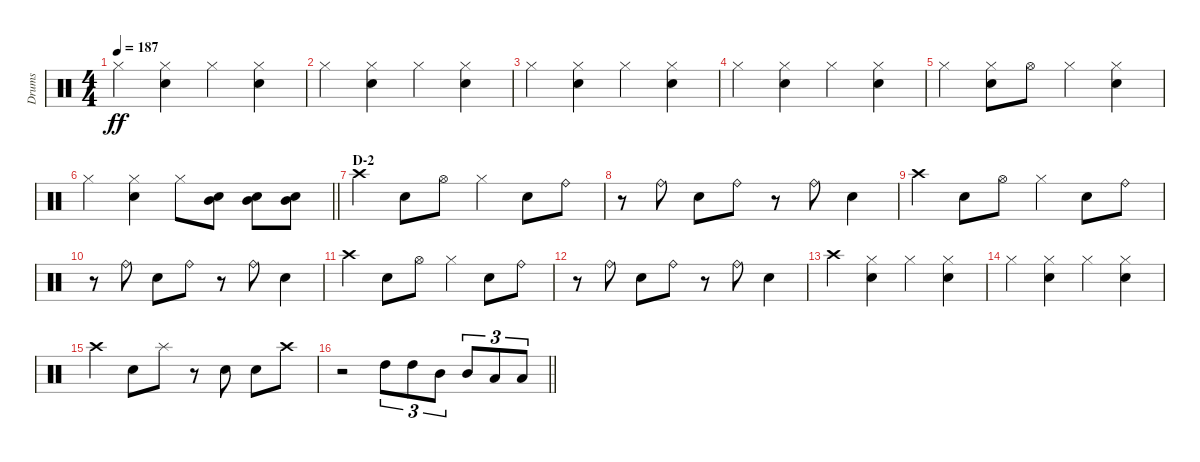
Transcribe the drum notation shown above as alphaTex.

\track ("Drums" "Drums") {instrument percussion}
\staff {score}
\articulation defaults
\ts (4 4)
\tempo 187
\clef neutral
\ks c "Hi-Hat (closed)".4{dy ff}
("Hi-Hat (closed)" "Snare (hit) 2").4 "Hi-Hat (closed)".4 ("Hi-Hat (closed)" "Snare (hit) 2").4 |
"Hi-Hat (closed)".4 ("Hi-Hat (closed)" "Snare (hit) 2").4 "Hi-Hat (closed)".4 ("Hi-Hat (closed)" "Snare (hit) 2").4 |
"Hi-Hat (closed)".4 ("Hi-Hat (closed)" "Snare (hit) 2").4 "Hi-Hat (closed)".4 ("Hi-Hat (closed)" "Snare (hit) 2").4 |
"Hi-Hat (closed)".4 ("Hi-Hat (closed)" "Snare (hit) 2").4 "Hi-Hat (closed)".4 ("Hi-Hat (closed)" "Snare (hit) 2").4 |
"Hi-Hat (closed)".4 ("Snare (hit) 2" "Hi-Hat (closed)").8 "Hi-Hat (open)".8 "Hi-Hat (closed)".4 ("Hi-Hat (closed)" "Snare (hit) 2").4 |
\barLineRight lightlight "Hi-Hat (closed)".4
("Hi-Hat (closed)" "Snare (hit) 2").4 "Hi-Hat (closed)".8 ("Mid Tom (hit)" "Snare (hit) 2").8 ("Snare (hit) 2" "Mid Tom (hit)").8 ("Mid Tom (hit)" "Snare (hit) 2").8 |
\section ("" "D-2")
"Crash high (hit)".4 "Snare (hit) 2".8 "Hi-Hat (open)".8 "Hi-Hat (closed)".4 "Snare (hit) 2".8 "Ride (bell)".8 |
r.8 "Ride (bell)".8 "Snare (hit) 2".8 "Ride (bell)".8 r.8 "Ride (bell)".8 "Snare (hit) 2".4 |
"Crash high (hit)".4 "Snare (hit) 2".8 "Hi-Hat (open)".8 "Hi-Hat (closed)".4 "Snare (hit) 2".8 "Ride (bell)".8 |
r.8 "Ride (bell)".8 "Snare (hit) 2".8 "Ride (bell)".8 r.8 "Ride (bell)".8 "Snare (hit) 2".4 |
"Crash high (hit)".4 "Snare (hit) 2".8 "Hi-Hat (open)".8 "Hi-Hat (closed)".4 "Snare (hit) 2".8 "Ride (bell)".8 |
r.8 "Ride (bell)".8 "Snare (hit) 2".8 "Ride (bell)".8 r.8 "Ride (bell)".8 "Snare (hit) 2".4 |
"Crash high (hit)".4 ("Snare (hit) 2" "Hi-Hat (closed)").4 "Hi-Hat (closed)".4 ("Hi-Hat (closed)" "Snare (hit) 2").4 |
"Hi-Hat (closed)".4 ("Hi-Hat (closed)" "Snare (hit) 2").4 "Hi-Hat (closed)".4 ("Hi-Hat (closed)" "Snare (hit) 2").4 |
"Crash high (hit)".4 "Snare (hit) 2".8 "Splash (hit)".8 r.8 "Snare (hit) 2".8 "Snare (hit) 2".8 "Crash high (hit)".8 |
\barLineRight lightlight
r.2 "High Tom (hit)".8{tu (3 2)} "High Tom (hit)".8{tu (3 2)} "Mid Tom (hit)".8{tu (3 2)} "Mid Tom (hit)".8{tu (3 2)} "Low Tom (hit)".8{tu (3 2)} "Low Tom (hit)".8{tu (3 2)}
